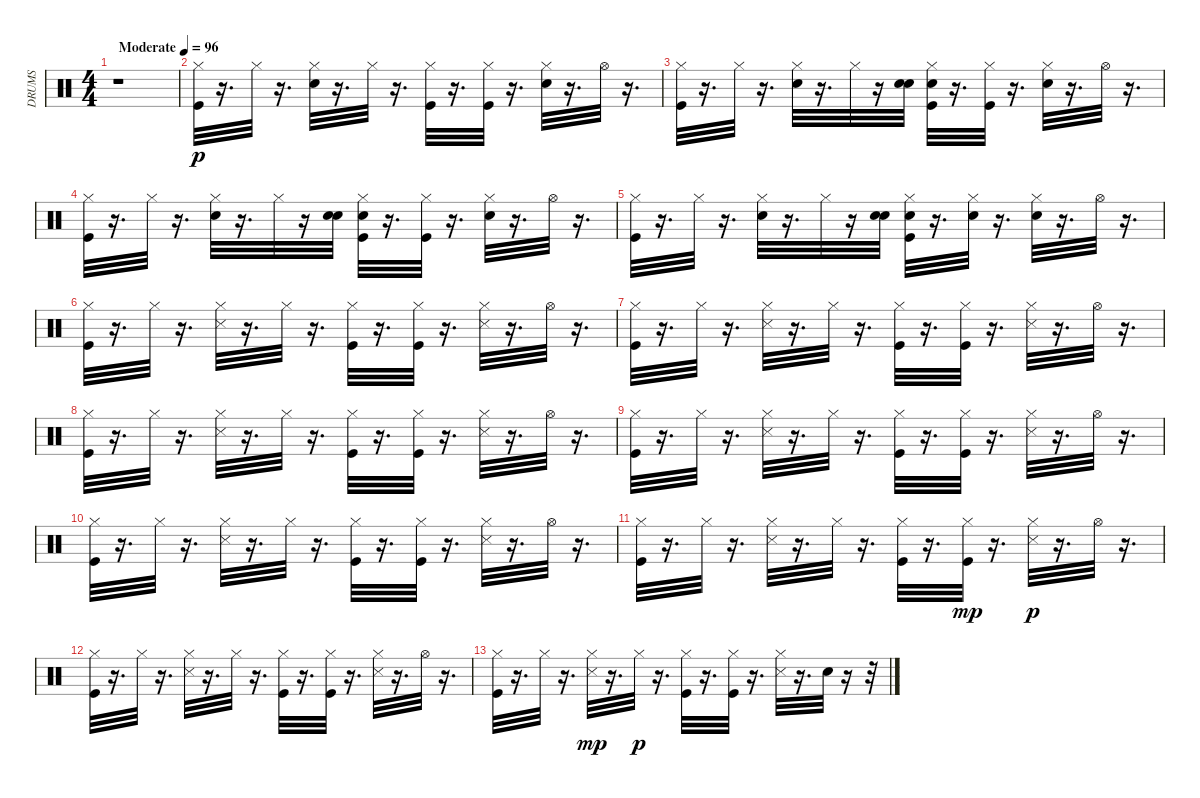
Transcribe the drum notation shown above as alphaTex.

\track ("DRUMS" "DRUMS") {instrument percussion}
\staff {score}
\articulation defaults
\ts (4 4)
\tempo (96 "Moderate")
\clef neutral
\ks c
r.1{dy p} |
("Kick (hit)" "Hi-Hat (closed)").32 r.16{d} "Hi-Hat (closed)".32 r.16{d} ("Electric Snare (hit)" "Hi-Hat (closed)").32 r.16{d} "Hi-Hat (closed)".32 r.16{d} ("Kick (hit)" "Hi-Hat (closed)").32 r.16{d} ("Kick (hit)" "Hi-Hat (closed)").32 r.16{d} ("Electric Snare (hit)" "Hi-Hat (closed)").32 r.16{d} "Hi-Hat (open)".32 r.16{d} |
("Kick (hit)" "Hi-Hat (closed)").32 r.16{d} "Hi-Hat (closed)".32 r.16{d} ("Electric Snare (hit)" "Hi-Hat (closed)").32 r.16{d} "Hi-Hat (closed)".32 r.16 ("Electric Snare (hit)" "Electric Snare (hit)").32 ("Electric Snare (hit)" "Kick (hit)" "Hi-Hat (closed)").32 r.16{d} ("Kick (hit)" "Hi-Hat (closed)").32 r.16{d} ("Electric Snare (hit)" "Hi-Hat (closed)").32 r.16{d} "Hi-Hat (open)".32 r.16{d} |
("Kick (hit)" "Hi-Hat (closed)").32 r.16{d} "Hi-Hat (closed)".32 r.16{d} ("Electric Snare (hit)" "Hi-Hat (closed)").32 r.16{d} "Hi-Hat (closed)".32 r.16 ("Electric Snare (hit)" "Electric Snare (hit)").32 ("Electric Snare (hit)" "Kick (hit)" "Hi-Hat (closed)").32 r.16{d} ("Kick (hit)" "Hi-Hat (closed)").32 r.16{d} ("Electric Snare (hit)" "Hi-Hat (closed)").32 r.16{d} "Hi-Hat (open)".32 r.16{d} |
("Kick (hit)" "Hi-Hat (closed)").32 r.16{d} "Hi-Hat (closed)".32 r.16{d} ("Electric Snare (hit)" "Hi-Hat (closed)").32 r.16{d} "Hi-Hat (closed)".32 r.16 ("Electric Snare (hit)" "Electric Snare (hit)").32 ("Electric Snare (hit)" "Kick (hit)" "Hi-Hat (closed)").32 r.16{d} ("Electric Snare (hit)" "Hi-Hat (closed)").32 r.16{d} ("Electric Snare (hit)" "Hi-Hat (closed)").32 r.16{d} "Hi-Hat (open)".32 r.16{d} |
("Kick (hit)" "Hi-Hat (closed)").32 r.16{d} "Hi-Hat (closed)".32 r.16{d} ("Snare (side stick) 3" "Hi-Hat (closed)").32 r.16{d} "Hi-Hat (closed)".32 r.16{d} ("Kick (hit)" "Hi-Hat (closed)").32 r.16{d} ("Kick (hit)" "Hi-Hat (closed)").32 r.16{d} ("Snare (side stick) 3" "Hi-Hat (closed)").32 r.16{d} "Hi-Hat (open)".32 r.16{d} |
("Kick (hit)" "Hi-Hat (closed)").32 r.16{d} "Hi-Hat (closed)".32 r.16{d} ("Snare (side stick) 3" "Hi-Hat (closed)").32 r.16{d} "Hi-Hat (closed)".32 r.16{d} ("Kick (hit)" "Hi-Hat (closed)").32 r.16{d} ("Kick (hit)" "Hi-Hat (closed)").32 r.16{d} ("Snare (side stick) 3" "Hi-Hat (closed)").32 r.16{d} "Hi-Hat (open)".32 r.16{d} |
("Kick (hit)" "Hi-Hat (closed)").32 r.16{d} "Hi-Hat (closed)".32 r.16{d} ("Snare (side stick) 3" "Hi-Hat (closed)").32 r.16{d} "Hi-Hat (closed)".32 r.16{d} ("Kick (hit)" "Hi-Hat (closed)").32 r.16{d} ("Kick (hit)" "Hi-Hat (closed)").32 r.16{d} ("Snare (side stick) 3" "Hi-Hat (closed)").32 r.16{d} "Hi-Hat (open)".32 r.16{d} |
("Kick (hit)" "Hi-Hat (closed)").32 r.16{d} "Hi-Hat (closed)".32 r.16{d} ("Snare (side stick) 3" "Hi-Hat (closed)").32 r.16{d} "Hi-Hat (closed)".32 r.16{d} ("Kick (hit)" "Hi-Hat (closed)").32 r.16{d} ("Kick (hit)" "Hi-Hat (closed)").32 r.16{d} ("Snare (side stick) 3" "Hi-Hat (closed)").32 r.16{d} "Hi-Hat (open)".32 r.16{d} |
("Kick (hit)" "Hi-Hat (closed)").32 r.16{d} "Hi-Hat (closed)".32 r.16{d} ("Snare (side stick) 3" "Hi-Hat (closed)").32 r.16{d} "Hi-Hat (closed)".32 r.16{d} ("Kick (hit)" "Hi-Hat (closed)").32 r.16{d} ("Kick (hit)" "Hi-Hat (closed)").32 r.16{d} ("Snare (side stick) 3" "Hi-Hat (closed)").32 r.16{d} "Hi-Hat (open)".32 r.16{d} |
("Kick (hit)" "Hi-Hat (closed)").32 r.16{d} "Hi-Hat (closed)".32 r.16{d} ("Snare (side stick) 3" "Hi-Hat (closed)").32 r.16{d} "Hi-Hat (closed)".32 r.16{d} ("Kick (hit)" "Hi-Hat (closed)").32 r.16{d} ("Hi-Hat (closed)" "Kick (hit)").32{dy mp} r.16{d} ("Snare (side stick) 3" "Hi-Hat (closed)").32{dy p} r.16{d} "Hi-Hat (open)".32 r.16{d} |
("Kick (hit)" "Hi-Hat (closed)").32 r.16{d} "Hi-Hat (closed)".32 r.16{d} ("Snare (side stick) 3" "Hi-Hat (closed)").32 r.16{d} "Hi-Hat (closed)".32 r.16{d} ("Kick (hit)" "Hi-Hat (closed)").32 r.16{d} ("Kick (hit)" "Hi-Hat (closed)").32 r.16{d} ("Snare (side stick) 3" "Hi-Hat (closed)").32 r.16{d} "Hi-Hat (open)".32 r.16{d} |
("Kick (hit)" "Hi-Hat (closed)").32 r.16{d} "Hi-Hat (closed)".32 r.16{d} ("Hi-Hat (closed)" "Snare (side stick) 3").32{dy mp} r.16{d} "Hi-Hat (closed)".32{dy p} r.16{d} ("Kick (hit)" "Hi-Hat (closed)").32 r.16{d} ("Kick (hit)" "Hi-Hat (closed)").32 r.16{d} ("Snare (side stick) 3" "Hi-Hat (closed)").32 r.16{d} "Electric Snare (hit)".32 r.16 r.32
